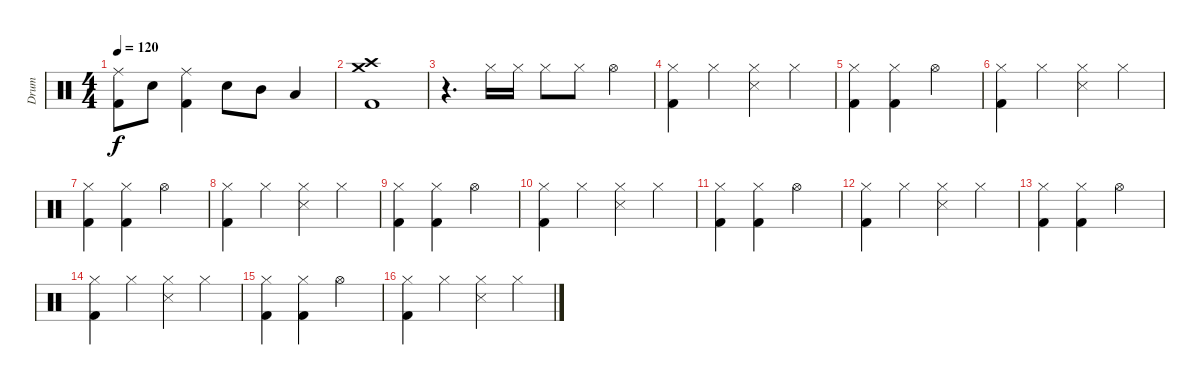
\track ("Drum" "Drum") {instrument percussion}
\staff {score}
\articulation defaults
\ts (4 4)
\tempo 120
\clef neutral
\ks c
("Ride (middle)" "Kick (hit) 2").8{dy f} "Snare (hit) 2".8 ("Ride (middle)" "Kick (hit) 2").4 "Snare (hit) 2".8 "Mid Tom (hit)".8 "Low Floor Tom (hit)".4 |
("Crash high (hit)" "Kick (hit) 2" "Crash medium (hit)").1 |
r.4{d} "Hi-Hat (closed)".16 "Hi-Hat (closed)".16 "Hi-Hat (closed)".8 "Hi-Hat (closed)".8 "Hi-Hat (open)".4 |
("Hi-Hat (closed)" "Kick (hit) 2").4 "Hi-Hat (closed)".4 ("Hi-Hat (closed)" "Snare (side stick) 3").4 "Hi-Hat (closed)".4 |
("Hi-Hat (closed)" "Kick (hit) 2").4 ("Hi-Hat (closed)" "Kick (hit) 2").4 "Hi-Hat (open)".2 |
("Hi-Hat (closed)" "Kick (hit) 2").4 "Hi-Hat (closed)".4 ("Hi-Hat (closed)" "Snare (side stick) 3").4 "Hi-Hat (closed)".4 |
("Hi-Hat (closed)" "Kick (hit) 2").4 ("Hi-Hat (closed)" "Kick (hit) 2").4 "Hi-Hat (open)".2 |
("Hi-Hat (closed)" "Kick (hit) 2").4 "Hi-Hat (closed)".4 ("Hi-Hat (closed)" "Snare (side stick) 3").4 "Hi-Hat (closed)".4 |
("Hi-Hat (closed)" "Kick (hit) 2").4 ("Hi-Hat (closed)" "Kick (hit) 2").4 "Hi-Hat (open)".2 |
("Hi-Hat (closed)" "Kick (hit) 2").4 "Hi-Hat (closed)".4 ("Hi-Hat (closed)" "Snare (side stick) 3").4 "Hi-Hat (closed)".4 |
("Hi-Hat (closed)" "Kick (hit) 2").4 ("Hi-Hat (closed)" "Kick (hit) 2").4 "Hi-Hat (open)".2 |
("Hi-Hat (closed)" "Kick (hit) 2").4 "Hi-Hat (closed)".4 ("Hi-Hat (closed)" "Snare (side stick) 3").4 "Hi-Hat (closed)".4 |
("Hi-Hat (closed)" "Kick (hit) 2").4 ("Hi-Hat (closed)" "Kick (hit) 2").4 "Hi-Hat (open)".2 |
("Hi-Hat (closed)" "Kick (hit) 2").4 "Hi-Hat (closed)".4 ("Hi-Hat (closed)" "Snare (side stick) 3").4 "Hi-Hat (closed)".4 |
("Hi-Hat (closed)" "Kick (hit) 2").4 ("Hi-Hat (closed)" "Kick (hit) 2").4 "Hi-Hat (open)".2 |
("Hi-Hat (closed)" "Kick (hit) 2").4 "Hi-Hat (closed)".4 ("Hi-Hat (closed)" "Snare (side stick) 3").4 "Hi-Hat (closed)".4
